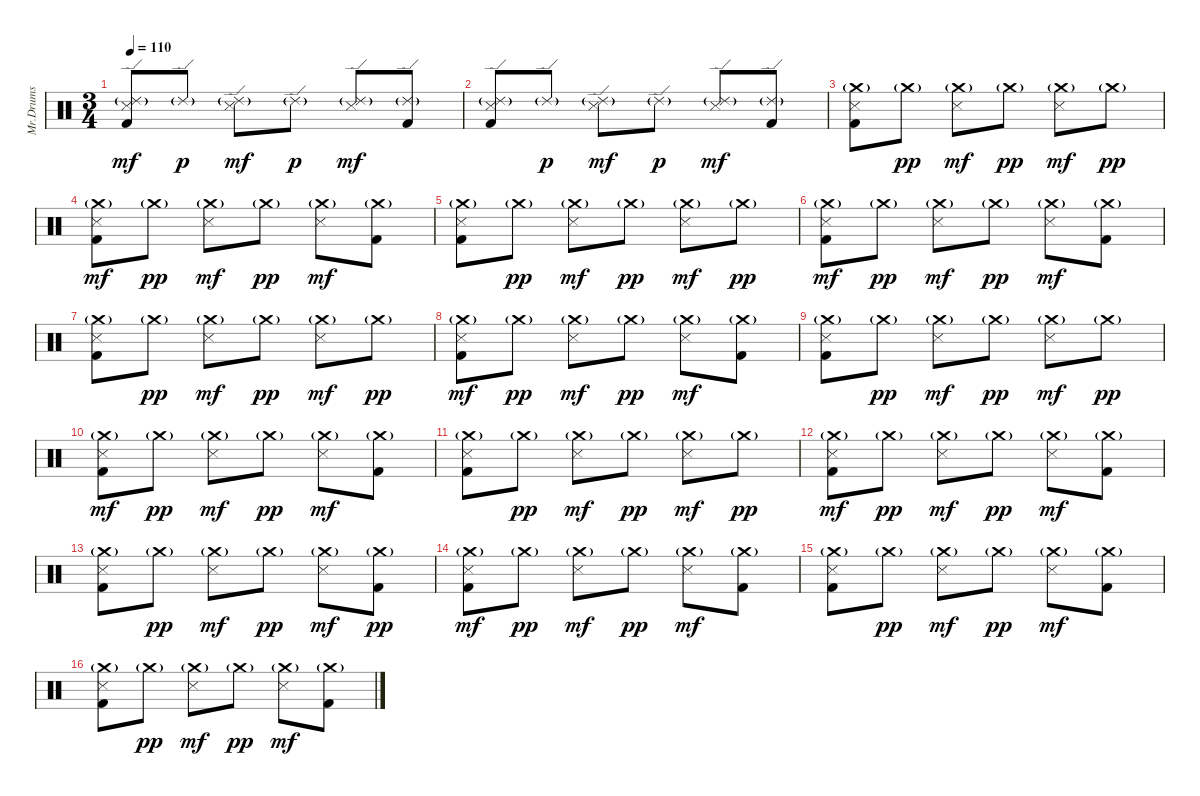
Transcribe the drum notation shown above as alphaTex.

\track ("Mr.Drums" "Mr.Drums") {instrument percussion}
\staff {score}
\articulation defaults
\ts (3 4)
\tempo 110
\clef neutral
\ks c
("Ride (edge) 2"{g} "Snare (side stick) 3" "Kick (hit) 2").8{dy mf} "Ride (edge) 2"{g}.8{dy p} ("Ride (edge) 2"{g} "Snare (side stick) 3").8{dy mf} "Ride (edge) 2"{g}.8{dy p} ("Ride (edge) 2"{g} "Snare (side stick) 3").8{dy mf} ("Ride (edge) 2"{g} "Kick (hit) 2").8 |
("Ride (edge) 2"{g} "Snare (side stick) 3" "Kick (hit) 2").8 "Ride (edge) 2"{g}.8{dy p} ("Ride (edge) 2"{g} "Snare (side stick) 3").8{dy mf} "Ride (edge) 2"{g}.8{dy p} ("Ride (edge) 2"{g} "Snare (side stick) 3").8{dy mf} ("Ride (edge) 2"{g} "Kick (hit) 2").8 |
("Crash medium (hit)"{g} "Snare (side stick) 3" "Kick (hit) 2").8 "Crash medium (hit)"{g}.8{dy pp} ("Crash medium (hit)"{g} "Snare (side stick) 3").8{dy mf} "Crash medium (hit)"{g}.8{dy pp} ("Crash medium (hit)"{g} "Snare (side stick) 3").8{dy mf} "Crash medium (hit)"{g}.8{dy pp} |
("Crash medium (hit)"{g} "Snare (side stick) 3" "Kick (hit) 2").8{dy mf} "Crash medium (hit)"{g}.8{dy pp} ("Crash medium (hit)"{g} "Snare (side stick) 3").8{dy mf} "Crash medium (hit)"{g}.8{dy pp} ("Crash medium (hit)"{g} "Snare (side stick) 3").8{dy mf} ("Crash medium (hit)"{g} "Kick (hit) 2").8 |
("Crash medium (hit)"{g} "Snare (side stick) 3" "Kick (hit) 2").8 "Crash medium (hit)"{g}.8{dy pp} ("Crash medium (hit)"{g} "Snare (side stick) 3").8{dy mf} "Crash medium (hit)"{g}.8{dy pp} ("Crash medium (hit)"{g} "Snare (side stick) 3").8{dy mf} "Crash medium (hit)"{g}.8{dy pp} |
("Crash medium (hit)"{g} "Snare (side stick) 3" "Kick (hit) 2").8{dy mf} "Crash medium (hit)"{g}.8{dy pp} ("Crash medium (hit)"{g} "Snare (side stick) 3").8{dy mf} "Crash medium (hit)"{g}.8{dy pp} ("Crash medium (hit)"{g} "Snare (side stick) 3").8{dy mf} ("Crash medium (hit)"{g} "Kick (hit) 2").8 |
("Crash medium (hit)"{g} "Snare (side stick) 3" "Kick (hit) 2").8 "Crash medium (hit)"{g}.8{dy pp} ("Crash medium (hit)"{g} "Snare (side stick) 3").8{dy mf} "Crash medium (hit)"{g}.8{dy pp} ("Crash medium (hit)"{g} "Snare (side stick) 3").8{dy mf} "Crash medium (hit)"{g}.8{dy pp} |
("Crash medium (hit)"{g} "Snare (side stick) 3" "Kick (hit) 2").8{dy mf} "Crash medium (hit)"{g}.8{dy pp} ("Crash medium (hit)"{g} "Snare (side stick) 3").8{dy mf} "Crash medium (hit)"{g}.8{dy pp} ("Crash medium (hit)"{g} "Snare (side stick) 3").8{dy mf} ("Crash medium (hit)"{g} "Kick (hit) 2").8 |
("Crash medium (hit)"{g} "Snare (side stick) 3" "Kick (hit) 2").8 "Crash medium (hit)"{g}.8{dy pp} ("Crash medium (hit)"{g} "Snare (side stick) 3").8{dy mf} "Crash medium (hit)"{g}.8{dy pp} ("Crash medium (hit)"{g} "Snare (side stick) 3").8{dy mf} "Crash medium (hit)"{g}.8{dy pp} |
("Crash medium (hit)"{g} "Snare (side stick) 3" "Kick (hit) 2").8{dy mf} "Crash medium (hit)"{g}.8{dy pp} ("Crash medium (hit)"{g} "Snare (side stick) 3").8{dy mf} "Crash medium (hit)"{g}.8{dy pp} ("Crash medium (hit)"{g} "Snare (side stick) 3").8{dy mf} ("Crash medium (hit)"{g} "Kick (hit) 2").8 |
("Crash medium (hit)"{g} "Snare (side stick) 3" "Kick (hit) 2").8 "Crash medium (hit)"{g}.8{dy pp} ("Crash medium (hit)"{g} "Snare (side stick) 3").8{dy mf} "Crash medium (hit)"{g}.8{dy pp} ("Crash medium (hit)"{g} "Snare (side stick) 3").8{dy mf} "Crash medium (hit)"{g}.8{dy pp} |
("Crash medium (hit)"{g} "Snare (side stick) 3" "Kick (hit) 2").8{dy mf} "Crash medium (hit)"{g}.8{dy pp} ("Crash medium (hit)"{g} "Snare (side stick) 3").8{dy mf} "Crash medium (hit)"{g}.8{dy pp} ("Crash medium (hit)"{g} "Snare (side stick) 3").8{dy mf} ("Crash medium (hit)"{g} "Kick (hit) 2").8 |
("Crash medium (hit)"{g} "Snare (side stick) 3" "Kick (hit) 2").8 "Crash medium (hit)"{g}.8{dy pp} ("Crash medium (hit)"{g} "Snare (side stick) 3").8{dy mf} "Crash medium (hit)"{g}.8{dy pp} ("Crash medium (hit)"{g} "Snare (side stick) 3").8{dy mf} ("Crash medium (hit)"{g} "Kick (hit) 2").8{dy pp} |
("Crash medium (hit)"{g} "Snare (side stick) 3" "Kick (hit) 2").8{dy mf} "Crash medium (hit)"{g}.8{dy pp} ("Crash medium (hit)"{g} "Snare (side stick) 3").8{dy mf} "Crash medium (hit)"{g}.8{dy pp} ("Crash medium (hit)"{g} "Snare (side stick) 3").8{dy mf} ("Crash medium (hit)"{g} "Kick (hit) 2").8 |
("Crash medium (hit)"{g} "Snare (side stick) 3" "Kick (hit) 2").8 "Crash medium (hit)"{g}.8{dy pp} ("Crash medium (hit)"{g} "Snare (side stick) 3").8{dy mf} "Crash medium (hit)"{g}.8{dy pp} ("Crash medium (hit)"{g} "Snare (side stick) 3").8{dy mf} ("Crash medium (hit)"{g} "Kick (hit) 2").8 |
("Crash medium (hit)"{g} "Snare (side stick) 3" "Kick (hit) 2").8 "Crash medium (hit)"{g}.8{dy pp} ("Crash medium (hit)"{g} "Snare (side stick) 3").8{dy mf} "Crash medium (hit)"{g}.8{dy pp} ("Crash medium (hit)"{g} "Snare (side stick) 3").8{dy mf} ("Crash medium (hit)"{g} "Kick (hit) 2").8
